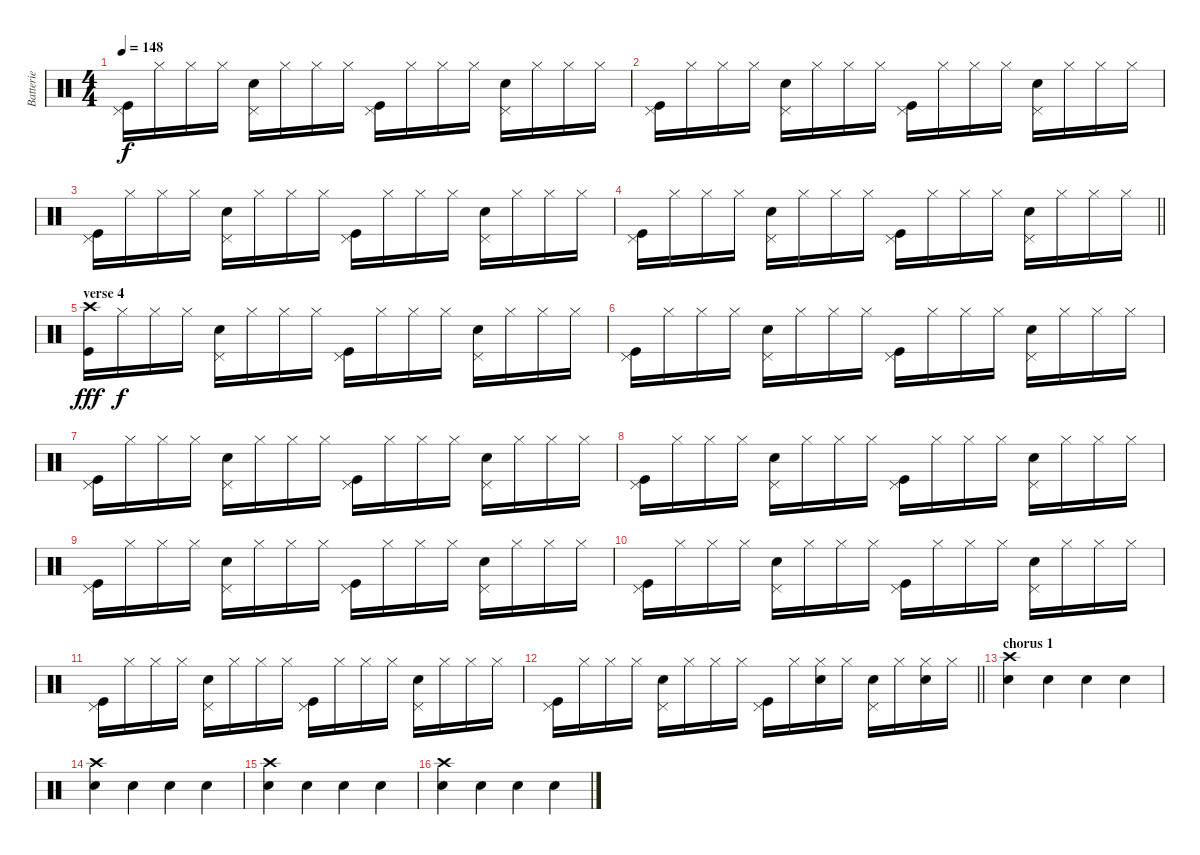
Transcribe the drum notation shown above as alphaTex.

\track ("Batterie" "Batterie") {instrument percussion}
\staff {score}
\articulation defaults
\ts (4 4)
\tempo 148
\clef neutral
\ks c
("Pedal Hi-Hat (hit)" "Kick (hit)").16{dy f} "Hi-Hat (closed)".16 "Hi-Hat (closed)".16 "Hi-Hat (closed)".16 ("Pedal Hi-Hat (hit)" "Electric Snare (hit)").16 "Hi-Hat (closed)".16 "Hi-Hat (closed)".16 "Hi-Hat (closed)".16 ("Pedal Hi-Hat (hit)" "Kick (hit)").16 "Hi-Hat (closed)".16 "Hi-Hat (closed)".16 "Hi-Hat (closed)".16 ("Pedal Hi-Hat (hit)" "Electric Snare (hit)").16 "Hi-Hat (closed)".16 "Hi-Hat (closed)".16 "Hi-Hat (closed)".16 |
("Pedal Hi-Hat (hit)" "Kick (hit)").16 "Hi-Hat (closed)".16 "Hi-Hat (closed)".16 "Hi-Hat (closed)".16 ("Pedal Hi-Hat (hit)" "Electric Snare (hit)").16 "Hi-Hat (closed)".16 "Hi-Hat (closed)".16 "Hi-Hat (closed)".16 ("Pedal Hi-Hat (hit)" "Kick (hit)").16 "Hi-Hat (closed)".16 "Hi-Hat (closed)".16 "Hi-Hat (closed)".16 ("Pedal Hi-Hat (hit)" "Electric Snare (hit)").16 "Hi-Hat (closed)".16 "Hi-Hat (closed)".16 "Hi-Hat (closed)".16 |
("Pedal Hi-Hat (hit)" "Kick (hit)").16 "Hi-Hat (closed)".16 "Hi-Hat (closed)".16 "Hi-Hat (closed)".16 ("Pedal Hi-Hat (hit)" "Electric Snare (hit)").16 "Hi-Hat (closed)".16 "Hi-Hat (closed)".16 "Hi-Hat (closed)".16 ("Pedal Hi-Hat (hit)" "Kick (hit)").16 "Hi-Hat (closed)".16 "Hi-Hat (closed)".16 "Hi-Hat (closed)".16 ("Pedal Hi-Hat (hit)" "Electric Snare (hit)").16 "Hi-Hat (closed)".16 "Hi-Hat (closed)".16 "Hi-Hat (closed)".16 |
\barLineRight lightlight
("Pedal Hi-Hat (hit)" "Kick (hit)").16 "Hi-Hat (closed)".16 "Hi-Hat (closed)".16 "Hi-Hat (closed)".16 ("Pedal Hi-Hat (hit)" "Electric Snare (hit)").16 "Hi-Hat (closed)".16 "Hi-Hat (closed)".16 "Hi-Hat (closed)".16 ("Pedal Hi-Hat (hit)" "Kick (hit)").16 "Hi-Hat (closed)".16 "Hi-Hat (closed)".16 "Hi-Hat (closed)".16 ("Pedal Hi-Hat (hit)" "Electric Snare (hit)").16 "Hi-Hat (closed)".16 "Hi-Hat (closed)".16 "Hi-Hat (closed)".16 |
\section ("" "verse 4")
("Crash high (hit)" "Kick (hit)").16{dy fff} "Hi-Hat (closed)".16{dy f} "Hi-Hat (closed)".16 "Hi-Hat (closed)".16 ("Pedal Hi-Hat (hit)" "Electric Snare (hit)").16 "Hi-Hat (closed)".16 "Hi-Hat (closed)".16 "Hi-Hat (closed)".16 ("Pedal Hi-Hat (hit)" "Kick (hit)").16 "Hi-Hat (closed)".16 "Hi-Hat (closed)".16 "Hi-Hat (closed)".16 ("Pedal Hi-Hat (hit)" "Electric Snare (hit)").16 "Hi-Hat (closed)".16 "Hi-Hat (closed)".16 "Hi-Hat (closed)".16 |
("Pedal Hi-Hat (hit)" "Kick (hit)").16 "Hi-Hat (closed)".16 "Hi-Hat (closed)".16 "Hi-Hat (closed)".16 ("Pedal Hi-Hat (hit)" "Electric Snare (hit)").16 "Hi-Hat (closed)".16 "Hi-Hat (closed)".16 "Hi-Hat (closed)".16 ("Pedal Hi-Hat (hit)" "Kick (hit)").16 "Hi-Hat (closed)".16 "Hi-Hat (closed)".16 "Hi-Hat (closed)".16 ("Pedal Hi-Hat (hit)" "Electric Snare (hit)").16 "Hi-Hat (closed)".16 "Hi-Hat (closed)".16 "Hi-Hat (closed)".16 |
("Pedal Hi-Hat (hit)" "Kick (hit)").16 "Hi-Hat (closed)".16 "Hi-Hat (closed)".16 "Hi-Hat (closed)".16 ("Pedal Hi-Hat (hit)" "Electric Snare (hit)").16 "Hi-Hat (closed)".16 "Hi-Hat (closed)".16 "Hi-Hat (closed)".16 ("Pedal Hi-Hat (hit)" "Kick (hit)").16 "Hi-Hat (closed)".16 "Hi-Hat (closed)".16 "Hi-Hat (closed)".16 ("Pedal Hi-Hat (hit)" "Electric Snare (hit)").16 "Hi-Hat (closed)".16 "Hi-Hat (closed)".16 "Hi-Hat (closed)".16 |
("Pedal Hi-Hat (hit)" "Kick (hit)").16 "Hi-Hat (closed)".16 "Hi-Hat (closed)".16 "Hi-Hat (closed)".16 ("Pedal Hi-Hat (hit)" "Electric Snare (hit)").16 "Hi-Hat (closed)".16 "Hi-Hat (closed)".16 "Hi-Hat (closed)".16 ("Pedal Hi-Hat (hit)" "Kick (hit)").16 "Hi-Hat (closed)".16 "Hi-Hat (closed)".16 "Hi-Hat (closed)".16 ("Pedal Hi-Hat (hit)" "Electric Snare (hit)").16 "Hi-Hat (closed)".16 "Hi-Hat (closed)".16 "Hi-Hat (closed)".16 |
("Pedal Hi-Hat (hit)" "Kick (hit)").16 "Hi-Hat (closed)".16 "Hi-Hat (closed)".16 "Hi-Hat (closed)".16 ("Pedal Hi-Hat (hit)" "Electric Snare (hit)").16 "Hi-Hat (closed)".16 "Hi-Hat (closed)".16 "Hi-Hat (closed)".16 ("Pedal Hi-Hat (hit)" "Kick (hit)").16 "Hi-Hat (closed)".16 "Hi-Hat (closed)".16 "Hi-Hat (closed)".16 ("Pedal Hi-Hat (hit)" "Electric Snare (hit)").16 "Hi-Hat (closed)".16 "Hi-Hat (closed)".16 "Hi-Hat (closed)".16 |
("Pedal Hi-Hat (hit)" "Kick (hit)").16 "Hi-Hat (closed)".16 "Hi-Hat (closed)".16 "Hi-Hat (closed)".16 ("Pedal Hi-Hat (hit)" "Electric Snare (hit)").16 "Hi-Hat (closed)".16 "Hi-Hat (closed)".16 "Hi-Hat (closed)".16 ("Pedal Hi-Hat (hit)" "Kick (hit)").16 "Hi-Hat (closed)".16 "Hi-Hat (closed)".16 "Hi-Hat (closed)".16 ("Pedal Hi-Hat (hit)" "Electric Snare (hit)").16 "Hi-Hat (closed)".16 "Hi-Hat (closed)".16 "Hi-Hat (closed)".16 |
("Pedal Hi-Hat (hit)" "Kick (hit)").16 "Hi-Hat (closed)".16 "Hi-Hat (closed)".16 "Hi-Hat (closed)".16 ("Pedal Hi-Hat (hit)" "Electric Snare (hit)").16 "Hi-Hat (closed)".16 "Hi-Hat (closed)".16 "Hi-Hat (closed)".16 ("Pedal Hi-Hat (hit)" "Kick (hit)").16 "Hi-Hat (closed)".16 "Hi-Hat (closed)".16 "Hi-Hat (closed)".16 ("Pedal Hi-Hat (hit)" "Electric Snare (hit)").16 "Hi-Hat (closed)".16 "Hi-Hat (closed)".16 "Hi-Hat (closed)".16 |
\barLineRight lightlight
("Pedal Hi-Hat (hit)" "Kick (hit)").16 "Hi-Hat (closed)".16 "Hi-Hat (closed)".16 "Hi-Hat (closed)".16 ("Pedal Hi-Hat (hit)" "Electric Snare (hit)").16 "Hi-Hat (closed)".16 "Hi-Hat (closed)".16 "Hi-Hat (closed)".16 ("Pedal Hi-Hat (hit)" "Kick (hit)").16 "Hi-Hat (closed)".16 ("Hi-Hat (closed)" "Electric Snare (hit)").16 "Hi-Hat (closed)".16 ("Pedal Hi-Hat (hit)" "Electric Snare (hit)").16 "Hi-Hat (closed)".16 ("Hi-Hat (closed)" "Electric Snare (hit)").16 "Hi-Hat (closed)".16 |
\section ("" "chorus 1")
("Crash high (hit)" "Electric Snare (hit)").4 "Electric Snare (hit)".4 "Electric Snare (hit)".4 "Electric Snare (hit)".4 |
("Crash high (hit)" "Electric Snare (hit)").4 "Electric Snare (hit)".4 "Electric Snare (hit)".4 "Electric Snare (hit)".4 |
("Crash high (hit)" "Electric Snare (hit)").4 "Electric Snare (hit)".4 "Electric Snare (hit)".4 "Electric Snare (hit)".4 |
("Crash high (hit)" "Electric Snare (hit)").4 "Electric Snare (hit)".4 "Electric Snare (hit)".4 "Electric Snare (hit)".4
